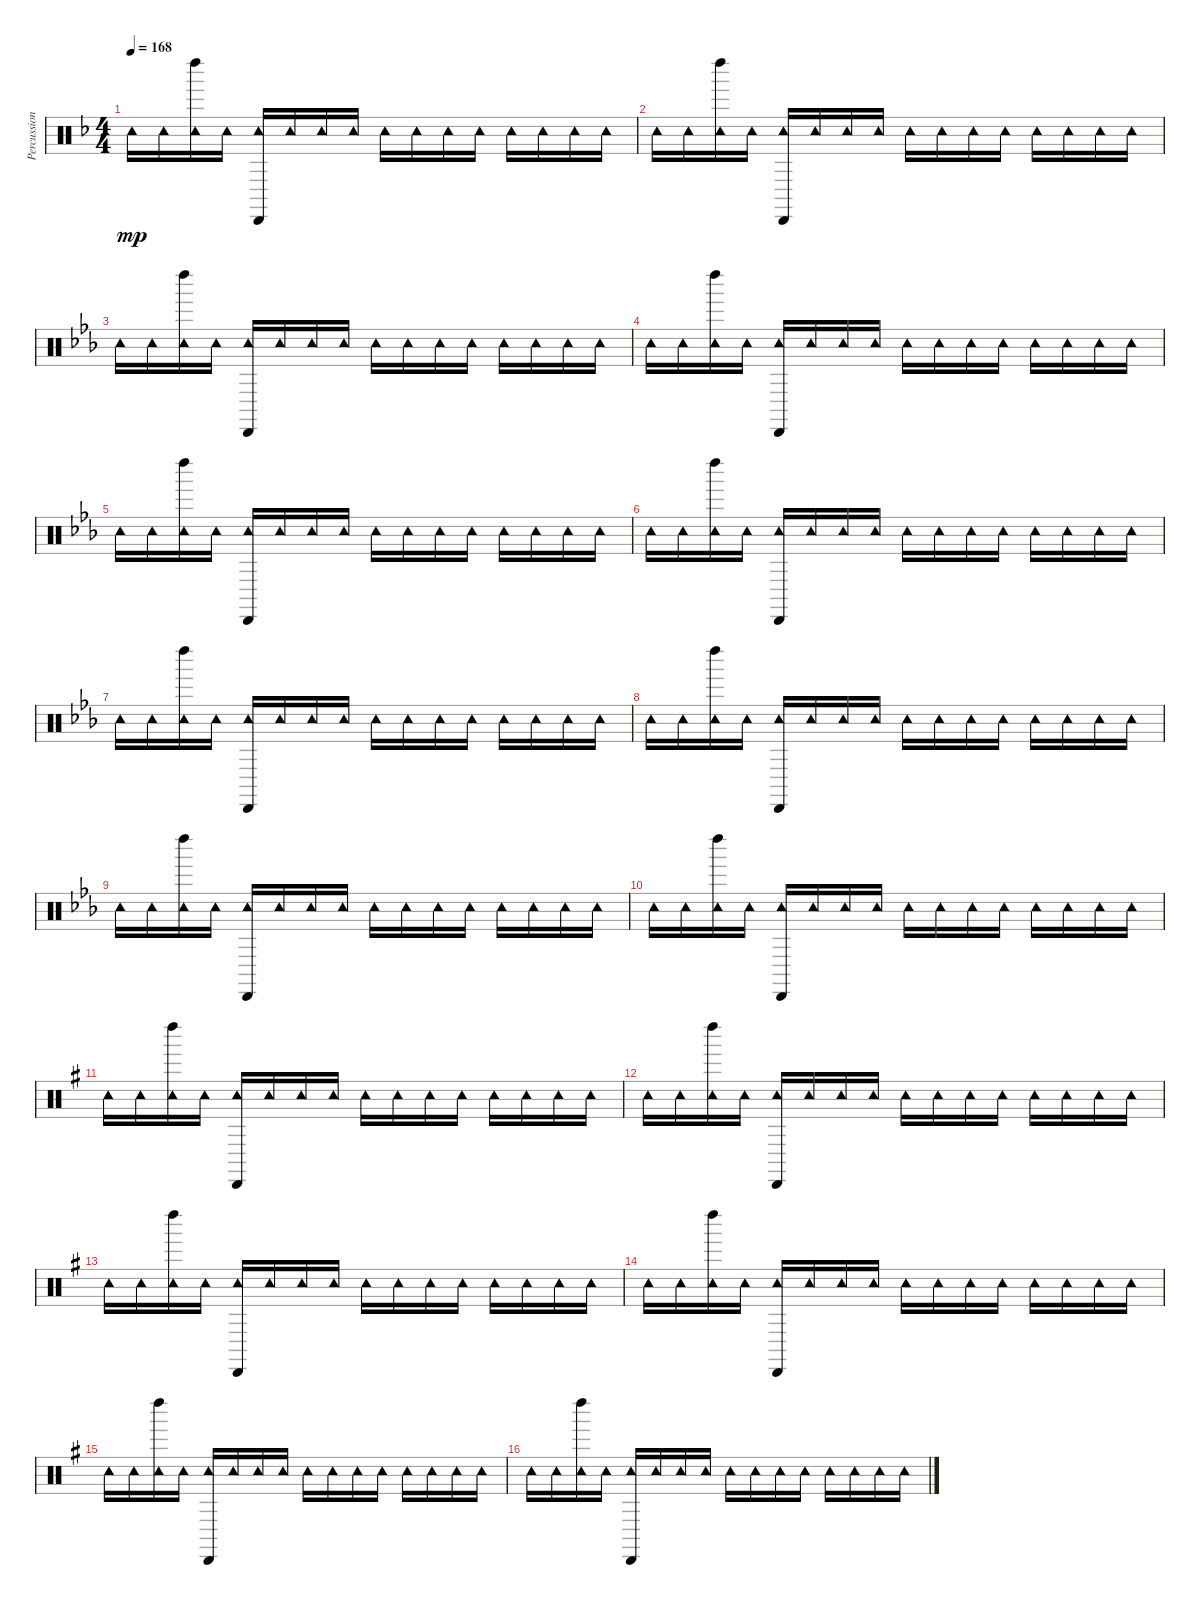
\track ("Percussions" "Percussion") {instrument percussion}
\staff {score}
\articulation defaults
\ts (4 4)
\tempo 168
\clef neutral
\ks f "Tambourine (hit)".16{dy mp} "Tambourine (hit)".16
("Left Maraca (hit)" "Tambourine (hit)").16 "Tambourine (hit)".16 ("Cabasa (hit)" "Tambourine (hit)").16 "Tambourine (hit)".16 "Tambourine (hit)".16 "Tambourine (hit)".16 "Tambourine (hit)".16 "Tambourine (hit)".16 "Tambourine (hit)".16 "Tambourine (hit)".16 "Tambourine (hit)".16 "Tambourine (hit)".16 "Tambourine (hit)".16 "Tambourine (hit)".16 |
"Tambourine (hit)".16 "Tambourine (hit)".16 ("Left Maraca (hit)" "Tambourine (hit)").16 "Tambourine (hit)".16 ("Cabasa (hit)" "Tambourine (hit)").16 "Tambourine (hit)".16 "Tambourine (hit)".16 "Tambourine (hit)".16 "Tambourine (hit)".16 "Tambourine (hit)".16 "Tambourine (hit)".16 "Tambourine (hit)".16 "Tambourine (hit)".16 "Tambourine (hit)".16 "Tambourine (hit)".16 "Tambourine (hit)".16 |
\ks eb "Tambourine (hit)".16 "Tambourine (hit)".16
("Left Maraca (hit)" "Tambourine (hit)").16 "Tambourine (hit)".16 ("Cabasa (hit)" "Tambourine (hit)").16 "Tambourine (hit)".16 "Tambourine (hit)".16 "Tambourine (hit)".16 "Tambourine (hit)".16 "Tambourine (hit)".16 "Tambourine (hit)".16 "Tambourine (hit)".16 "Tambourine (hit)".16 "Tambourine (hit)".16 "Tambourine (hit)".16 "Tambourine (hit)".16 |
"Tambourine (hit)".16 "Tambourine (hit)".16 ("Left Maraca (hit)" "Tambourine (hit)").16 "Tambourine (hit)".16 ("Cabasa (hit)" "Tambourine (hit)").16 "Tambourine (hit)".16 "Tambourine (hit)".16 "Tambourine (hit)".16 "Tambourine (hit)".16 "Tambourine (hit)".16 "Tambourine (hit)".16 "Tambourine (hit)".16 "Tambourine (hit)".16 "Tambourine (hit)".16 "Tambourine (hit)".16 "Tambourine (hit)".16 |
"Tambourine (hit)".16 "Tambourine (hit)".16 ("Left Maraca (hit)" "Tambourine (hit)").16 "Tambourine (hit)".16 ("Cabasa (hit)" "Tambourine (hit)").16 "Tambourine (hit)".16 "Tambourine (hit)".16 "Tambourine (hit)".16 "Tambourine (hit)".16 "Tambourine (hit)".16 "Tambourine (hit)".16 "Tambourine (hit)".16 "Tambourine (hit)".16 "Tambourine (hit)".16 "Tambourine (hit)".16 "Tambourine (hit)".16 |
"Tambourine (hit)".16 "Tambourine (hit)".16 ("Left Maraca (hit)" "Tambourine (hit)").16 "Tambourine (hit)".16 ("Cabasa (hit)" "Tambourine (hit)").16 "Tambourine (hit)".16 "Tambourine (hit)".16 "Tambourine (hit)".16 "Tambourine (hit)".16 "Tambourine (hit)".16 "Tambourine (hit)".16 "Tambourine (hit)".16 "Tambourine (hit)".16 "Tambourine (hit)".16 "Tambourine (hit)".16 "Tambourine (hit)".16 |
"Tambourine (hit)".16 "Tambourine (hit)".16 ("Left Maraca (hit)" "Tambourine (hit)").16 "Tambourine (hit)".16 ("Cabasa (hit)" "Tambourine (hit)").16 "Tambourine (hit)".16 "Tambourine (hit)".16 "Tambourine (hit)".16 "Tambourine (hit)".16 "Tambourine (hit)".16 "Tambourine (hit)".16 "Tambourine (hit)".16 "Tambourine (hit)".16 "Tambourine (hit)".16 "Tambourine (hit)".16 "Tambourine (hit)".16 |
"Tambourine (hit)".16 "Tambourine (hit)".16 ("Left Maraca (hit)" "Tambourine (hit)").16 "Tambourine (hit)".16 ("Cabasa (hit)" "Tambourine (hit)").16 "Tambourine (hit)".16 "Tambourine (hit)".16 "Tambourine (hit)".16 "Tambourine (hit)".16 "Tambourine (hit)".16 "Tambourine (hit)".16 "Tambourine (hit)".16 "Tambourine (hit)".16 "Tambourine (hit)".16 "Tambourine (hit)".16 "Tambourine (hit)".16 |
"Tambourine (hit)".16 "Tambourine (hit)".16 ("Left Maraca (hit)" "Tambourine (hit)").16 "Tambourine (hit)".16 ("Cabasa (hit)" "Tambourine (hit)").16 "Tambourine (hit)".16 "Tambourine (hit)".16 "Tambourine (hit)".16 "Tambourine (hit)".16 "Tambourine (hit)".16 "Tambourine (hit)".16 "Tambourine (hit)".16 "Tambourine (hit)".16 "Tambourine (hit)".16 "Tambourine (hit)".16 "Tambourine (hit)".16 |
"Tambourine (hit)".16 "Tambourine (hit)".16 ("Left Maraca (hit)" "Tambourine (hit)").16 "Tambourine (hit)".16 ("Cabasa (hit)" "Tambourine (hit)").16 "Tambourine (hit)".16 "Tambourine (hit)".16 "Tambourine (hit)".16 "Tambourine (hit)".16 "Tambourine (hit)".16 "Tambourine (hit)".16 "Tambourine (hit)".16 "Tambourine (hit)".16 "Tambourine (hit)".16 "Tambourine (hit)".16 "Tambourine (hit)".16 |
\ks g "Tambourine (hit)".16 "Tambourine (hit)".16
("Left Maraca (hit)" "Tambourine (hit)").16 "Tambourine (hit)".16 ("Cabasa (hit)" "Tambourine (hit)").16 "Tambourine (hit)".16 "Tambourine (hit)".16 "Tambourine (hit)".16 "Tambourine (hit)".16 "Tambourine (hit)".16 "Tambourine (hit)".16 "Tambourine (hit)".16 "Tambourine (hit)".16 "Tambourine (hit)".16 "Tambourine (hit)".16 "Tambourine (hit)".16 |
"Tambourine (hit)".16 "Tambourine (hit)".16 ("Left Maraca (hit)" "Tambourine (hit)").16 "Tambourine (hit)".16 ("Cabasa (hit)" "Tambourine (hit)").16 "Tambourine (hit)".16 "Tambourine (hit)".16 "Tambourine (hit)".16 "Tambourine (hit)".16 "Tambourine (hit)".16 "Tambourine (hit)".16 "Tambourine (hit)".16 "Tambourine (hit)".16 "Tambourine (hit)".16 "Tambourine (hit)".16 "Tambourine (hit)".16 |
"Tambourine (hit)".16 "Tambourine (hit)".16 ("Left Maraca (hit)" "Tambourine (hit)").16 "Tambourine (hit)".16 ("Cabasa (hit)" "Tambourine (hit)").16 "Tambourine (hit)".16 "Tambourine (hit)".16 "Tambourine (hit)".16 "Tambourine (hit)".16 "Tambourine (hit)".16 "Tambourine (hit)".16 "Tambourine (hit)".16 "Tambourine (hit)".16 "Tambourine (hit)".16 "Tambourine (hit)".16 "Tambourine (hit)".16 |
"Tambourine (hit)".16 "Tambourine (hit)".16 ("Left Maraca (hit)" "Tambourine (hit)").16 "Tambourine (hit)".16 ("Cabasa (hit)" "Tambourine (hit)").16 "Tambourine (hit)".16 "Tambourine (hit)".16 "Tambourine (hit)".16 "Tambourine (hit)".16 "Tambourine (hit)".16 "Tambourine (hit)".16 "Tambourine (hit)".16 "Tambourine (hit)".16 "Tambourine (hit)".16 "Tambourine (hit)".16 "Tambourine (hit)".16 |
"Tambourine (hit)".16 "Tambourine (hit)".16 ("Left Maraca (hit)" "Tambourine (hit)").16 "Tambourine (hit)".16 ("Cabasa (hit)" "Tambourine (hit)").16 "Tambourine (hit)".16 "Tambourine (hit)".16 "Tambourine (hit)".16 "Tambourine (hit)".16 "Tambourine (hit)".16 "Tambourine (hit)".16 "Tambourine (hit)".16 "Tambourine (hit)".16 "Tambourine (hit)".16 "Tambourine (hit)".16 "Tambourine (hit)".16 |
"Tambourine (hit)".16 "Tambourine (hit)".16 ("Left Maraca (hit)" "Tambourine (hit)").16 "Tambourine (hit)".16 ("Cabasa (hit)" "Tambourine (hit)").16 "Tambourine (hit)".16 "Tambourine (hit)".16 "Tambourine (hit)".16 "Tambourine (hit)".16 "Tambourine (hit)".16 "Tambourine (hit)".16 "Tambourine (hit)".16 "Tambourine (hit)".16 "Tambourine (hit)".16 "Tambourine (hit)".16 "Tambourine (hit)".16
